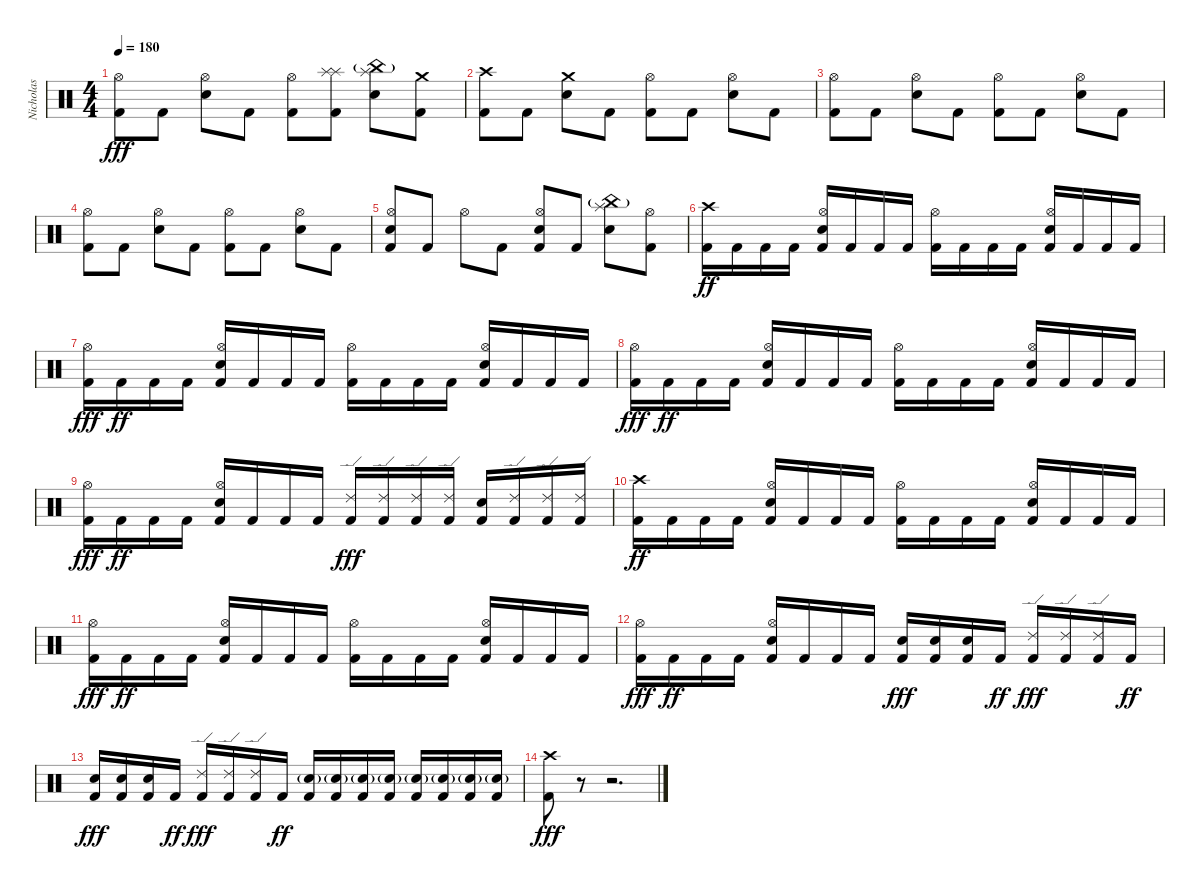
\track ("Nicholas" "Nicholas") {instrument percussion}
\staff {score}
\articulation defaults
\ts (4 4)
\tempo 180
\clef neutral
\ks c
("Kick (hit) 2" "Hi-Hat (open)").8{dy fff} "Kick (hit) 2".8 ("Electric Snare (hit)" "Hi-Hat (open)").8 "Kick (hit) 2".8 ("Kick (hit) 2" "Hi-Hat (open)").8 ("Kick (hit) 2" "Splash (hit)" "Splash (hit)").8 ("Electric Snare (hit)" "Splash (hit)" "China (hit)"{g}).8 ("Kick (hit) 2" "Crash medium (hit)").8 |
("Kick (hit) 2" "Crash high (hit)").8{volume 14} "Kick (hit) 2".8 ("Electric Snare (hit)" "Crash medium (hit)").8 "Kick (hit) 2".8 ("Kick (hit) 2" "Hi-Hat (open)").8 "Kick (hit) 2".8 ("Electric Snare (hit)" "Hi-Hat (open)").8 "Kick (hit) 2".8 |
("Kick (hit) 2" "Hi-Hat (open)").8 "Kick (hit) 2".8 ("Electric Snare (hit)" "Hi-Hat (open)").8 "Kick (hit) 2".8 ("Kick (hit) 2" "Hi-Hat (open)").8 "Kick (hit) 2".8 ("Electric Snare (hit)" "Hi-Hat (open)").8 "Kick (hit) 2".8 |
("Kick (hit) 2" "Hi-Hat (open)").8 "Kick (hit) 2".8 ("Electric Snare (hit)" "Hi-Hat (open)").8 "Kick (hit) 2".8 ("Kick (hit) 2" "Hi-Hat (open)").8 "Kick (hit) 2".8 ("Electric Snare (hit)" "Hi-Hat (open)").8 "Kick (hit) 2".8 |
("Kick (hit) 2" "Electric Snare (hit)" "Hi-Hat (open)").8 "Kick (hit) 2".8 "Hi-Hat (open)".8 "Kick (hit) 2".8 ("Kick (hit) 2" "Electric Snare (hit)" "Hi-Hat (open)").8 "Kick (hit) 2".8 ("Electric Snare (hit)" "Splash (hit)" "China (hit)"{g}).8 ("Kick (hit) 2" "Hi-Hat (open)").8 |
("Kick (hit) 2" "Crash high (hit)").16{dy ff} "Kick (hit) 2".16 "Kick (hit) 2".16 "Kick (hit) 2".16 ("Kick (hit) 2" "Electric Snare (hit)" "Hi-Hat (open)").16 "Kick (hit) 2".16 "Kick (hit) 2".16 "Kick (hit) 2".16 ("Kick (hit) 2" "Hi-Hat (open)").16 "Kick (hit) 2".16 "Kick (hit) 2".16 "Kick (hit) 2".16 ("Kick (hit) 2" "Electric Snare (hit)" "Hi-Hat (open)").16 "Kick (hit) 2".16 "Kick (hit) 2".16 "Kick (hit) 2".16 |
("Kick (hit) 2" "Hi-Hat (open)").16{dy fff} "Kick (hit) 2".16{dy ff} "Kick (hit) 2".16 "Kick (hit) 2".16 ("Kick (hit) 2" "Electric Snare (hit)" "Hi-Hat (open)").16 "Kick (hit) 2".16 "Kick (hit) 2".16 "Kick (hit) 2".16 ("Kick (hit) 2" "Hi-Hat (open)").16 "Kick (hit) 2".16 "Kick (hit) 2".16 "Kick (hit) 2".16 ("Kick (hit) 2" "Electric Snare (hit)" "Hi-Hat (open)").16 "Kick (hit) 2".16 "Kick (hit) 2".16 "Kick (hit) 2".16 |
("Kick (hit) 2" "Hi-Hat (open)").16{dy fff} "Kick (hit) 2".16{dy ff} "Kick (hit) 2".16 "Kick (hit) 2".16 ("Kick (hit) 2" "Electric Snare (hit)" "Hi-Hat (open)").16 "Kick (hit) 2".16 "Kick (hit) 2".16 "Kick (hit) 2".16 ("Kick (hit) 2" "Hi-Hat (open)").16 "Kick (hit) 2".16 "Kick (hit) 2".16 "Kick (hit) 2".16 ("Kick (hit) 2" "Electric Snare (hit)" "Hi-Hat (open)").16 "Kick (hit) 2".16 "Kick (hit) 2".16 "Kick (hit) 2".16 |
("Kick (hit) 2" "Hi-Hat (open)").16{dy fff} "Kick (hit) 2".16{dy ff} "Kick (hit) 2".16 "Kick (hit) 2".16 ("Kick (hit) 2" "Electric Snare (hit)" "Hi-Hat (open)").16 "Kick (hit) 2".16 "Kick (hit) 2".16 "Kick (hit) 2".16 ("Kick (hit) 2" "Ride (edge) 2").16{dy fff} ("Kick (hit) 2" "Ride (edge) 2").16 ("Kick (hit) 2" "Ride (edge) 2").16 ("Kick (hit) 2" "Ride (edge) 2").16 ("Kick (hit) 2" "Electric Snare (hit)").16 ("Kick (hit) 2" "Ride (edge) 2").16 ("Kick (hit) 2" "Ride (edge) 2").16 ("Kick (hit) 2" "Ride (edge) 2").16 |
("Kick (hit) 2" "Crash high (hit)").16{dy ff} "Kick (hit) 2".16 "Kick (hit) 2".16 "Kick (hit) 2".16 ("Kick (hit) 2" "Electric Snare (hit)" "Hi-Hat (open)").16 "Kick (hit) 2".16 "Kick (hit) 2".16 "Kick (hit) 2".16 ("Kick (hit) 2" "Hi-Hat (open)").16 "Kick (hit) 2".16 "Kick (hit) 2".16 "Kick (hit) 2".16 ("Kick (hit) 2" "Electric Snare (hit)" "Hi-Hat (open)").16 "Kick (hit) 2".16 "Kick (hit) 2".16 "Kick (hit) 2".16 |
("Kick (hit) 2" "Hi-Hat (open)").16{dy fff} "Kick (hit) 2".16{dy ff} "Kick (hit) 2".16 "Kick (hit) 2".16 ("Kick (hit) 2" "Electric Snare (hit)" "Hi-Hat (open)").16 "Kick (hit) 2".16 "Kick (hit) 2".16 "Kick (hit) 2".16 ("Kick (hit) 2" "Hi-Hat (open)").16 "Kick (hit) 2".16 "Kick (hit) 2".16 "Kick (hit) 2".16 ("Kick (hit) 2" "Electric Snare (hit)" "Hi-Hat (open)").16 "Kick (hit) 2".16 "Kick (hit) 2".16 "Kick (hit) 2".16 |
("Kick (hit) 2" "Hi-Hat (open)").16{dy fff} "Kick (hit) 2".16{dy ff} "Kick (hit) 2".16 "Kick (hit) 2".16 ("Kick (hit) 2" "Electric Snare (hit)" "Hi-Hat (open)").16 "Kick (hit) 2".16 "Kick (hit) 2".16 "Kick (hit) 2".16 ("Kick (hit) 2" "Electric Snare (hit)").16{dy fff} ("Kick (hit) 2" "Electric Snare (hit)").16 ("Kick (hit) 2" "Electric Snare (hit)").16 "Kick (hit) 2".16{dy ff} ("Kick (hit) 2" "Ride (edge) 2").16{dy fff} ("Kick (hit) 2" "Ride (edge) 2").16 ("Kick (hit) 2" "Ride (edge) 2").16 "Kick (hit) 2".16{dy ff} |
("Kick (hit) 2" "Electric Snare (hit)").16{dy fff} ("Kick (hit) 2" "Electric Snare (hit)").16 ("Kick (hit) 2" "Electric Snare (hit)").16 "Kick (hit) 2".16{dy ff} ("Kick (hit) 2" "Ride (edge) 2").16{dy fff} ("Kick (hit) 2" "Ride (edge) 2").16 ("Kick (hit) 2" "Ride (edge) 2").16 "Kick (hit) 2".16{dy ff} ("Kick (hit) 2" "Electric Snare (hit)"{g}).16 ("Kick (hit) 2" "Electric Snare (hit)"{g}).16 ("Kick (hit) 2" "Electric Snare (hit)"{g}).16 ("Kick (hit) 2" "Electric Snare (hit)"{g}).16 ("Kick (hit) 2" "Electric Snare (hit)"{g}).16 ("Kick (hit) 2" "Electric Snare (hit)"{g}).16 ("Kick (hit) 2" "Electric Snare (hit)"{g}).16 ("Kick (hit) 2" "Electric Snare (hit)"{g}).16 |
("Kick (hit) 2" "Crash high (hit)").8{dy fff} r.8 r.2{d}
